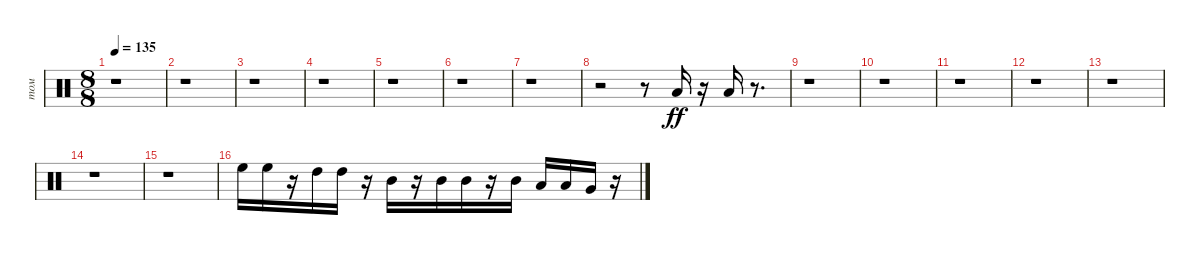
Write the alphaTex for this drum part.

\track ("том" "том") {instrument percussion}
\staff {score}
\articulation defaults
\ts (8 8)
\tempo 135
\clef neutral
\ks c
r.1{dy ff} |
r.1 |
r.1 |
r.1 |
r.1 |
r.1 |
r.1 |
r.2 r.8 "Low Floor Tom (hit)".16 r.16 "Low Floor Tom (hit)".16 r.8{d} |
r.1 |
r.1 |
r.1 |
r.1 |
r.1 |
r.1 |
r.1 |
"High Floor Tom (hit)".16 "High Floor Tom (hit)".16 r.16 "High Tom (hit)".16 "High Tom (hit)".16 r.16 "Mid Tom (hit)".16 r.16 "Mid Tom (hit)".16 "Mid Tom (hit)".16 r.16 "Mid Tom (hit)".16 "Low Tom (hit)".16 "Low Tom (hit)".16 "Very Low Tom (hit)".16 r.16
